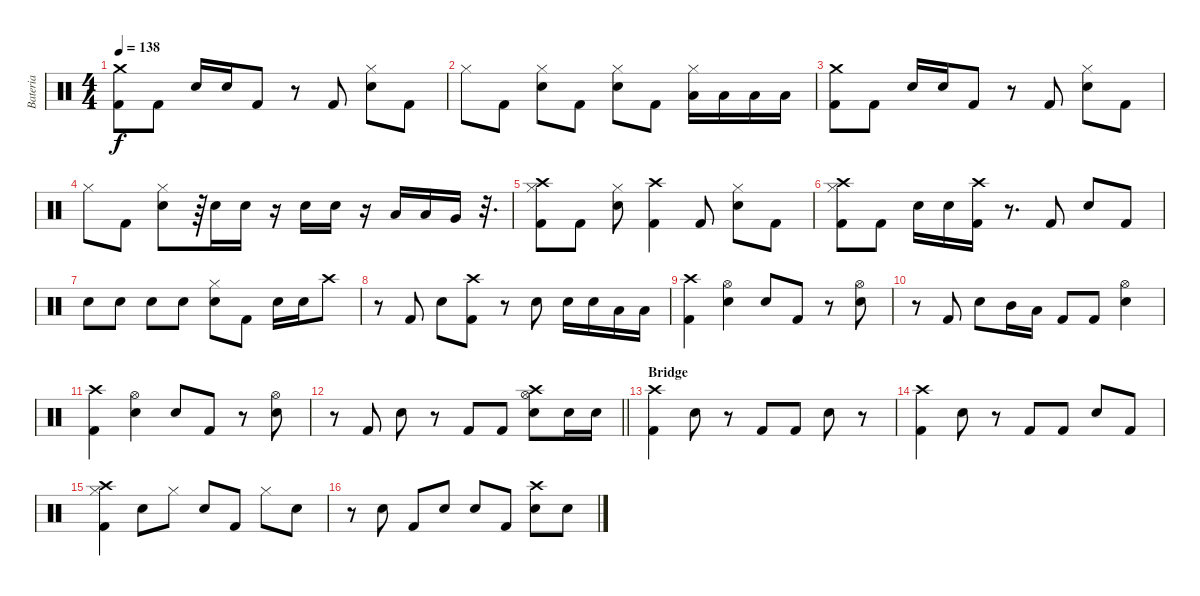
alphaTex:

\track ("Bateria" "Bateria") {instrument percussion}
\staff {score}
\articulation defaults
\ts (4 4)
\tempo 138
\clef neutral
\ks c
("Crash medium (hit)" "Kick (hit) 2").8{dy f} "Kick (hit) 2".8 "Electric Snare (hit)".16 "Electric Snare (hit)".16 "Kick (hit) 2".8 r.8 "Kick (hit) 2".8 ("Hi-Hat (closed)" "Electric Snare (hit)").8 "Kick (hit) 2".8 |
"Hi-Hat (closed)".8 "Kick (hit) 2".8 ("Hi-Hat (closed)" "Electric Snare (hit)").8 "Kick (hit) 2".8 ("Hi-Hat (closed)" "Electric Snare (hit)").8 "Kick (hit) 2".8 ("Hi-Hat (closed)" "Low Tom (hit)").16 "Low Tom (hit)".16 "Low Tom (hit)".16 "Low Tom (hit)".16 |
("Crash medium (hit)" "Kick (hit) 2").8 "Kick (hit) 2".8 "Electric Snare (hit)".16 "Electric Snare (hit)".16 "Kick (hit) 2".8 r.8 "Kick (hit) 2".8 ("Hi-Hat (closed)" "Electric Snare (hit)").8 "Kick (hit) 2".8 |
"Hi-Hat (closed)".8 "Kick (hit) 2".8 ("Hi-Hat (closed)" "Electric Snare (hit)").8 r.64 "Electric Snare (hit)".16 "Electric Snare (hit)".16 r.16 "Electric Snare (hit)".16 "Electric Snare (hit)".16 r.16 "Low Tom (hit)".16 "Low Tom (hit)".16 "Very Low Tom (hit)".16 r.32{d} |
("Crash high (hit)" "Hi-Hat (closed)" "Kick (hit) 2").8 "Kick (hit) 2".8 ("Hi-Hat (closed)" "Electric Snare (hit)").8 ("Crash high (hit)" "Kick (hit) 2").4 "Kick (hit) 2".8 ("Hi-Hat (closed)" "Electric Snare (hit)").8 "Kick (hit) 2".8 |
("Crash high (hit)" "Hi-Hat (closed)" "Kick (hit) 2").8 "Kick (hit) 2".8 "Electric Snare (hit)".16 "Electric Snare (hit)".16 ("Crash high (hit)" "Kick (hit) 2").16 r.8{d} "Kick (hit) 2".8 "Electric Snare (hit)".8 "Kick (hit) 2".8 |
"Electric Snare (hit)".8 "Electric Snare (hit)".8 "Electric Snare (hit)".8 "Electric Snare (hit)".8 ("Hi-Hat (closed)" "Electric Snare (hit)").8 "Kick (hit) 2".8 "Electric Snare (hit)".16 "Electric Snare (hit)".16 "Crash high (hit)".8 |
r.8 "Kick (hit) 2".8 "Electric Snare (hit)".8 ("Crash high (hit)" "Kick (hit) 2").8 r.8 "Electric Snare (hit)".8 "Electric Snare (hit)".16 "Electric Snare (hit)".16 "Low Tom (hit)".16 "Low Tom (hit)".16 |
("Crash high (hit)" "Kick (hit) 2").4 ("Hi-Hat (open)" "Electric Snare (hit)").4 "Electric Snare (hit)".8 "Kick (hit) 2".8 r.8 ("Hi-Hat (open)" "Electric Snare (hit)").8 |
r.8 "Kick (hit) 2".8 "Electric Snare (hit)".8 "Mid Tom (hit)".16 "Low Tom (hit)".16 "Kick (hit) 2".8 "Kick (hit) 2".8 ("Hi-Hat (open)" "Electric Snare (hit)").4 |
("Crash high (hit)" "Kick (hit) 2").4 ("Hi-Hat (open)" "Electric Snare (hit)").4 "Electric Snare (hit)".8 "Kick (hit) 2".8 r.8 ("Hi-Hat (open)" "Electric Snare (hit)").8 |
\barLineRight lightlight
r.8 "Kick (hit) 2".8 "Electric Snare (hit)".8 r.8 "Kick (hit) 2".8 "Kick (hit) 2".8 ("Crash high (hit)" "Hi-Hat (open)" "Electric Snare (hit)").8 "Electric Snare (hit)".16 "Electric Snare (hit)".16 |
\section ("" "Bridge")
("Crash high (hit)" "Kick (hit) 2").4 "Electric Snare (hit)".8 r.8 "Kick (hit) 2".8 "Kick (hit) 2".8 "Electric Snare (hit)".8 r.8 |
("Crash high (hit)" "Kick (hit) 2").4 "Electric Snare (hit)".8 r.8 "Kick (hit) 2".8 "Kick (hit) 2".8 "Electric Snare (hit)".8 "Kick (hit) 2".8 |
("Crash high (hit)" "Hi-Hat (closed)" "Kick (hit) 2").4 "Electric Snare (hit)".8 "Hi-Hat (closed)".8 "Electric Snare (hit)".8 "Kick (hit) 2".8 "Hi-Hat (closed)".8 "Electric Snare (hit)".8 |
r.8 "Electric Snare (hit)".8 "Kick (hit) 2".8 "Electric Snare (hit)".8 "Electric Snare (hit)".8 "Kick (hit) 2".8 ("Crash high (hit)" "Electric Snare (hit)").8 "Electric Snare (hit)".8
